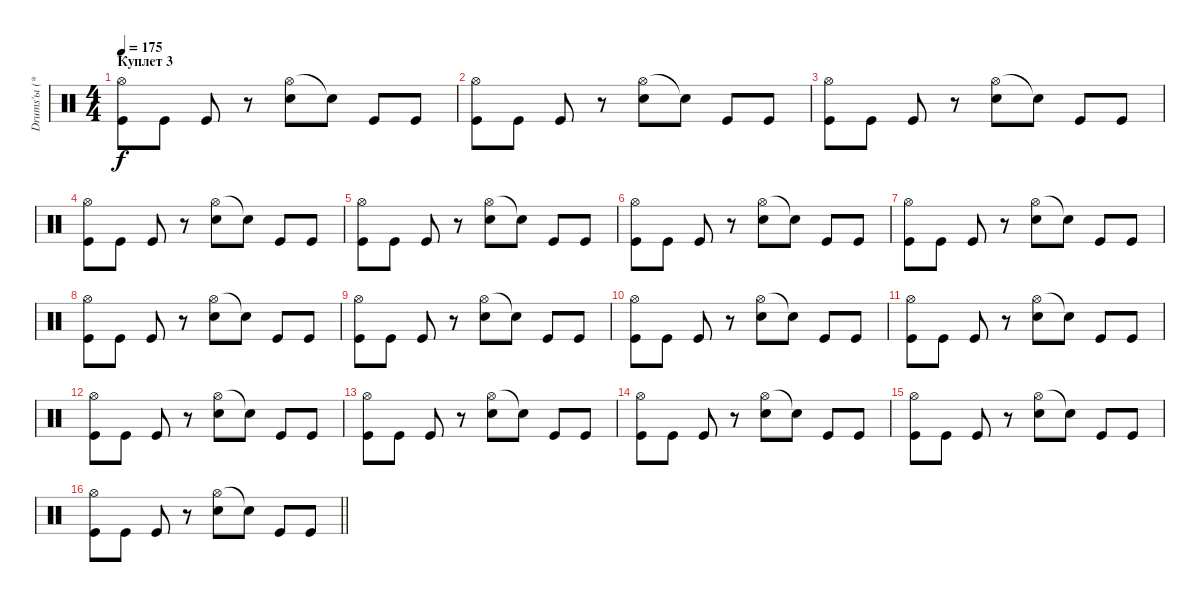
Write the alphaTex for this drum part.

\track ("Drums'ы (***)" "Drums'ы (*") {instrument percussion}
\staff {score}
\articulation defaults
\ts (4 4)
\section ("" "Куплет 3")
\tempo 175
\clef neutral
\ks c
("Hi-Hat (open)" "Kick (hit)").8{dy f} "Kick (hit)".8 "Kick (hit)".8 r.8 ("Hi-Hat (open)" "Electric Snare (hit)").8 "Snare (hit)"{t}.8 "Kick (hit)".8 "Kick (hit)".8 |
("Hi-Hat (open)" "Kick (hit)").8 "Kick (hit)".8 "Kick (hit)".8 r.8 ("Hi-Hat (open)" "Electric Snare (hit)").8 "Snare (hit)"{t}.8 "Kick (hit)".8 "Kick (hit)".8 |
("Hi-Hat (open)" "Kick (hit)").8 "Kick (hit)".8 "Kick (hit)".8 r.8 ("Hi-Hat (open)" "Electric Snare (hit)").8 "Snare (hit)"{t}.8 "Kick (hit)".8 "Kick (hit)".8 |
("Hi-Hat (open)" "Kick (hit)").8 "Kick (hit)".8 "Kick (hit)".8 r.8 ("Hi-Hat (open)" "Electric Snare (hit)").8 "Snare (hit)"{t}.8 "Kick (hit)".8 "Kick (hit)".8 |
("Hi-Hat (open)" "Kick (hit)").8 "Kick (hit)".8 "Kick (hit)".8 r.8 ("Hi-Hat (open)" "Electric Snare (hit)").8 "Snare (hit)"{t}.8 "Kick (hit)".8 "Kick (hit)".8 |
("Hi-Hat (open)" "Kick (hit)").8 "Kick (hit)".8 "Kick (hit)".8 r.8 ("Hi-Hat (open)" "Electric Snare (hit)").8 "Snare (hit)"{t}.8 "Kick (hit)".8 "Kick (hit)".8 |
("Hi-Hat (open)" "Kick (hit)").8 "Kick (hit)".8 "Kick (hit)".8 r.8 ("Hi-Hat (open)" "Electric Snare (hit)").8 "Snare (hit)"{t}.8 "Kick (hit)".8 "Kick (hit)".8 |
("Hi-Hat (open)" "Kick (hit)").8 "Kick (hit)".8 "Kick (hit)".8 r.8 ("Hi-Hat (open)" "Electric Snare (hit)").8 "Snare (hit)"{t}.8 "Kick (hit)".8 "Kick (hit)".8 |
("Hi-Hat (open)" "Kick (hit)").8 "Kick (hit)".8 "Kick (hit)".8 r.8 ("Hi-Hat (open)" "Electric Snare (hit)").8 "Snare (hit)"{t}.8 "Kick (hit)".8 "Kick (hit)".8 |
("Hi-Hat (open)" "Kick (hit)").8 "Kick (hit)".8 "Kick (hit)".8 r.8 ("Hi-Hat (open)" "Electric Snare (hit)").8 "Snare (hit)"{t}.8 "Kick (hit)".8 "Kick (hit)".8 |
("Hi-Hat (open)" "Kick (hit)").8 "Kick (hit)".8 "Kick (hit)".8 r.8 ("Hi-Hat (open)" "Electric Snare (hit)").8 "Snare (hit)"{t}.8 "Kick (hit)".8 "Kick (hit)".8 |
("Hi-Hat (open)" "Kick (hit)").8 "Kick (hit)".8 "Kick (hit)".8 r.8 ("Hi-Hat (open)" "Electric Snare (hit)").8 "Snare (hit)"{t}.8 "Kick (hit)".8 "Kick (hit)".8 |
("Hi-Hat (open)" "Kick (hit)").8 "Kick (hit)".8 "Kick (hit)".8 r.8 ("Hi-Hat (open)" "Electric Snare (hit)").8 "Snare (hit)"{t}.8 "Kick (hit)".8 "Kick (hit)".8 |
("Hi-Hat (open)" "Kick (hit)").8 "Kick (hit)".8 "Kick (hit)".8 r.8 ("Hi-Hat (open)" "Electric Snare (hit)").8 "Snare (hit)"{t}.8 "Kick (hit)".8 "Kick (hit)".8 |
("Hi-Hat (open)" "Kick (hit)").8 "Kick (hit)".8 "Kick (hit)".8 r.8 ("Hi-Hat (open)" "Electric Snare (hit)").8 "Snare (hit)"{t}.8 "Kick (hit)".8 "Kick (hit)".8 |
\barLineRight lightlight
("Hi-Hat (open)" "Kick (hit)").8 "Kick (hit)".8 "Kick (hit)".8 r.8 ("Hi-Hat (open)" "Electric Snare (hit)").8 "Snare (hit)"{t}.8 "Kick (hit)".8 "Kick (hit)".8
